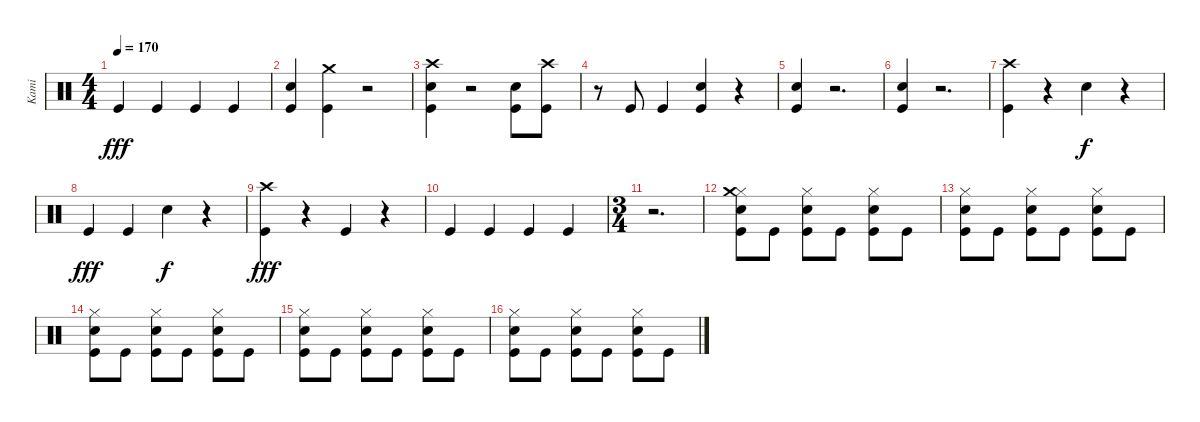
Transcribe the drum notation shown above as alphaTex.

\track ("Kami" "Kami") {instrument percussion}
\staff {score}
\articulation defaults
\ts (4 4)
\tempo 170
\clef neutral
\ks c "Kick (hit)".4{dy fff} "Kick (hit)".4 "Kick (hit)".4 "Kick (hit)".4
|
("Kick (hit)" "Snare (hit) 2").4 ("Kick (hit)" "Crash medium (hit)").4 r.2 |
("Kick (hit)" "Snare (hit) 2" "Crash high (hit)").4 r.2 ("Kick (hit)" "Snare (hit) 2").8 ("Kick (hit)" "Crash high (hit)").8 |
r.8 "Kick (hit)".8 "Kick (hit)".4 ("Kick (hit)" "Snare (hit) 2").4 r.4 |
("Kick (hit)" "Snare (hit) 2").4 r.2{d} |
("Kick (hit)" "Snare (hit) 2").4 r.2{d} |
("Kick (hit)" "Crash high (hit)").4 r.4 "Snare (hit) 2".4{dy f} r.4 |
"Kick (hit)".4{dy fff} "Kick (hit)".4 "Snare (hit) 2".4{dy f} r.4 |
("Kick (hit)" "Crash high (hit)").4{dy fff} r.4 "Kick (hit)".4 r.4 |
"Kick (hit)".4 "Kick (hit)".4 "Kick (hit)".4 "Kick (hit)".4 |
\ts (3 4)
r.2{d} |
("Kick (hit)" "Snare (hit) 2" "Hi-Hat (closed)" "Crash medium (hit)").8 "Kick (hit)".8 ("Kick (hit)" "Snare (hit) 2" "Hi-Hat (closed)").8 "Kick (hit)".8 ("Kick (hit)" "Snare (hit) 2" "Hi-Hat (closed)").8 "Kick (hit)".8 |
("Kick (hit)" "Snare (hit) 2" "Hi-Hat (closed)").8 "Kick (hit)".8 ("Kick (hit)" "Snare (hit) 2" "Hi-Hat (closed)").8 "Kick (hit)".8 ("Kick (hit)" "Snare (hit) 2" "Hi-Hat (closed)").8 "Kick (hit)".8 |
("Kick (hit)" "Snare (hit) 2" "Hi-Hat (closed)").8 "Kick (hit)".8 ("Kick (hit)" "Snare (hit) 2" "Hi-Hat (closed)").8 "Kick (hit)".8 ("Kick (hit)" "Snare (hit) 2" "Hi-Hat (closed)").8 "Kick (hit)".8 |
("Kick (hit)" "Snare (hit) 2" "Hi-Hat (closed)").8 "Kick (hit)".8 ("Kick (hit)" "Snare (hit) 2" "Hi-Hat (closed)").8 "Kick (hit)".8 ("Kick (hit)" "Snare (hit) 2" "Hi-Hat (closed)").8 "Kick (hit)".8 |
("Kick (hit)" "Snare (hit) 2" "Hi-Hat (closed)").8 "Kick (hit)".8 ("Kick (hit)" "Snare (hit) 2" "Hi-Hat (closed)").8 "Kick (hit)".8 ("Kick (hit)" "Snare (hit) 2" "Hi-Hat (closed)").8 "Kick (hit)".8
